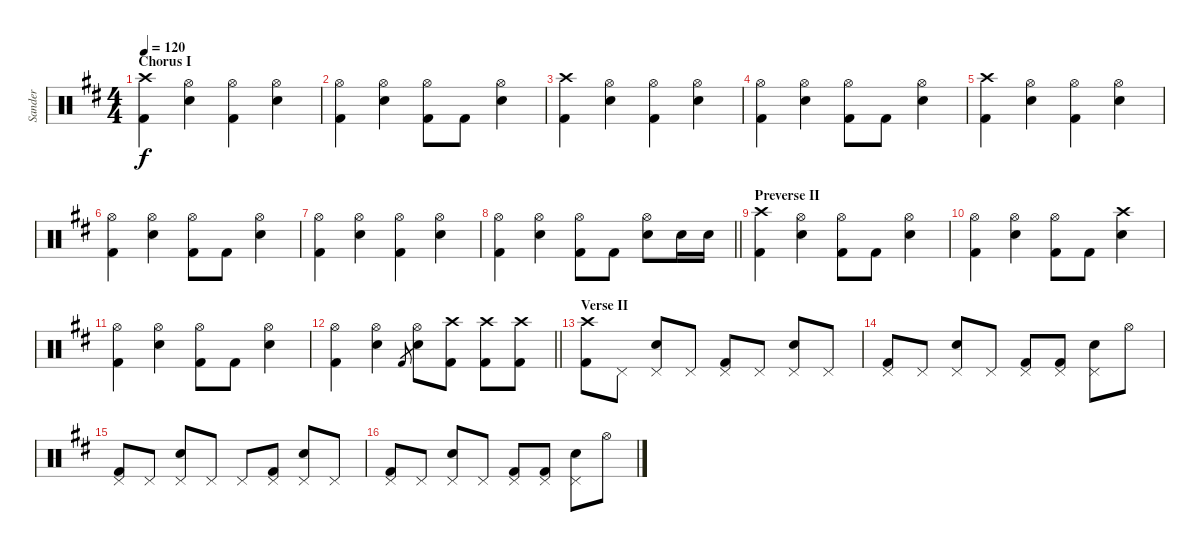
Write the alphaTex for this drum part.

\track ("Sander" "Sander") {instrument percussion}
\staff {score}
\articulation defaults
\ts (4 4)
\section ("" "Chorus I")
\tempo 120
\clef neutral
\ks bminor
("Crash high (hit)" "Kick (hit) 2").4{dy f} ("Hi-Hat (open)" "Snare (hit) 2").4 ("Hi-Hat (open)" "Kick (hit) 2").4 ("Hi-Hat (open)" "Snare (hit) 2").4 |
("Hi-Hat (open)" "Kick (hit) 2").4 ("Hi-Hat (open)" "Snare (hit) 2").4 ("Hi-Hat (open)" "Kick (hit) 2").8 "Kick (hit) 2".8 ("Hi-Hat (open)" "Snare (hit) 2").4 |
("Crash high (hit)" "Kick (hit) 2").4 ("Hi-Hat (open)" "Snare (hit) 2").4 ("Hi-Hat (open)" "Kick (hit) 2").4 ("Hi-Hat (open)" "Snare (hit) 2").4 |
("Hi-Hat (open)" "Kick (hit) 2").4 ("Hi-Hat (open)" "Snare (hit) 2").4 ("Hi-Hat (open)" "Kick (hit) 2").8 "Kick (hit) 2".8 ("Hi-Hat (open)" "Snare (hit) 2").4 |
("Crash high (hit)" "Kick (hit) 2").4 ("Hi-Hat (open)" "Snare (hit) 2").4 ("Hi-Hat (open)" "Kick (hit) 2").4 ("Hi-Hat (open)" "Snare (hit) 2").4 |
("Hi-Hat (open)" "Kick (hit) 2").4 ("Hi-Hat (open)" "Snare (hit) 2").4 ("Hi-Hat (open)" "Kick (hit) 2").8 "Kick (hit) 2".8 ("Hi-Hat (open)" "Snare (hit) 2").4 |
("Hi-Hat (open)" "Kick (hit) 2").4 ("Hi-Hat (open)" "Snare (hit) 2").4 ("Hi-Hat (open)" "Kick (hit) 2").4 ("Hi-Hat (open)" "Snare (hit) 2").4 |
\barLineRight lightlight
("Hi-Hat (open)" "Kick (hit) 2").4 ("Hi-Hat (open)" "Snare (hit) 2").4 ("Hi-Hat (open)" "Kick (hit) 2").8 "Kick (hit) 2".8 ("Hi-Hat (open)" "Snare (hit) 2").8 "Snare (hit) 2".16 "Snare (hit) 2".16 |
\section ("" "Preverse II")
("Crash high (hit)" "Kick (hit) 2").4 ("Hi-Hat (open)" "Snare (hit) 2").4 ("Hi-Hat (open)" "Kick (hit) 2").8 "Kick (hit) 2".8 ("Hi-Hat (open)" "Snare (hit) 2").4 |
("Hi-Hat (open)" "Kick (hit) 2").4 ("Hi-Hat (open)" "Snare (hit) 2").4 ("Hi-Hat (open)" "Kick (hit) 2").8 "Kick (hit) 2".8 ("Crash high (hit)" "Snare (hit) 2").4 |
("Hi-Hat (open)" "Kick (hit) 2").4 ("Hi-Hat (open)" "Snare (hit) 2").4 ("Hi-Hat (open)" "Kick (hit) 2").8 "Kick (hit) 2".8 ("Hi-Hat (open)" "Snare (hit) 2").4 |
\barLineRight lightlight
("Hi-Hat (open)" "Kick (hit) 2").4 ("Hi-Hat (open)" "Snare (hit) 2").4 "Kick (hit) 2".8{gr} ("Hi-Hat (open)" "Snare (hit) 2").8 ("Crash high (hit)" "Kick (hit) 2").8 ("Crash high (hit)" "Kick (hit) 2").8 ("Crash high (hit)" "Kick (hit) 2").8 |
\section ("" "Verse II")
("Crash high (hit)" "Kick (hit) 2").8 "Pedal Hi-Hat (hit)".8 ("Pedal Hi-Hat (hit)" "Snare (hit) 2").8 "Pedal Hi-Hat (hit)".8 ("Pedal Hi-Hat (hit)" "Kick (hit) 2").8 "Pedal Hi-Hat (hit)".8 ("Pedal Hi-Hat (hit)" "Snare (hit) 2").8 "Pedal Hi-Hat (hit)".8 |
("Pedal Hi-Hat (hit)" "Kick (hit) 2").8 "Pedal Hi-Hat (hit)".8 ("Pedal Hi-Hat (hit)" "Snare (hit) 2").8 "Pedal Hi-Hat (hit)".8 ("Pedal Hi-Hat (hit)" "Kick (hit) 2").8 ("Pedal Hi-Hat (hit)" "Kick (hit) 2").8 ("Pedal Hi-Hat (hit)" "Snare (hit) 2").8 "Hi-Hat (open)".8 |
("Pedal Hi-Hat (hit)" "Kick (hit) 2").8 "Pedal Hi-Hat (hit)".8 ("Pedal Hi-Hat (hit)" "Snare (hit) 2").8 "Pedal Hi-Hat (hit)".8 "Pedal Hi-Hat (hit)".8 ("Pedal Hi-Hat (hit)" "Kick (hit) 2").8 ("Pedal Hi-Hat (hit)" "Snare (hit) 2").8 "Pedal Hi-Hat (hit)".8 |
("Pedal Hi-Hat (hit)" "Kick (hit) 2").8 "Pedal Hi-Hat (hit)".8 ("Pedal Hi-Hat (hit)" "Snare (hit) 2").8 "Pedal Hi-Hat (hit)".8 ("Pedal Hi-Hat (hit)" "Kick (hit) 2").8 ("Pedal Hi-Hat (hit)" "Kick (hit) 2").8 ("Pedal Hi-Hat (hit)" "Snare (hit) 2").8 "Hi-Hat (open)".8
